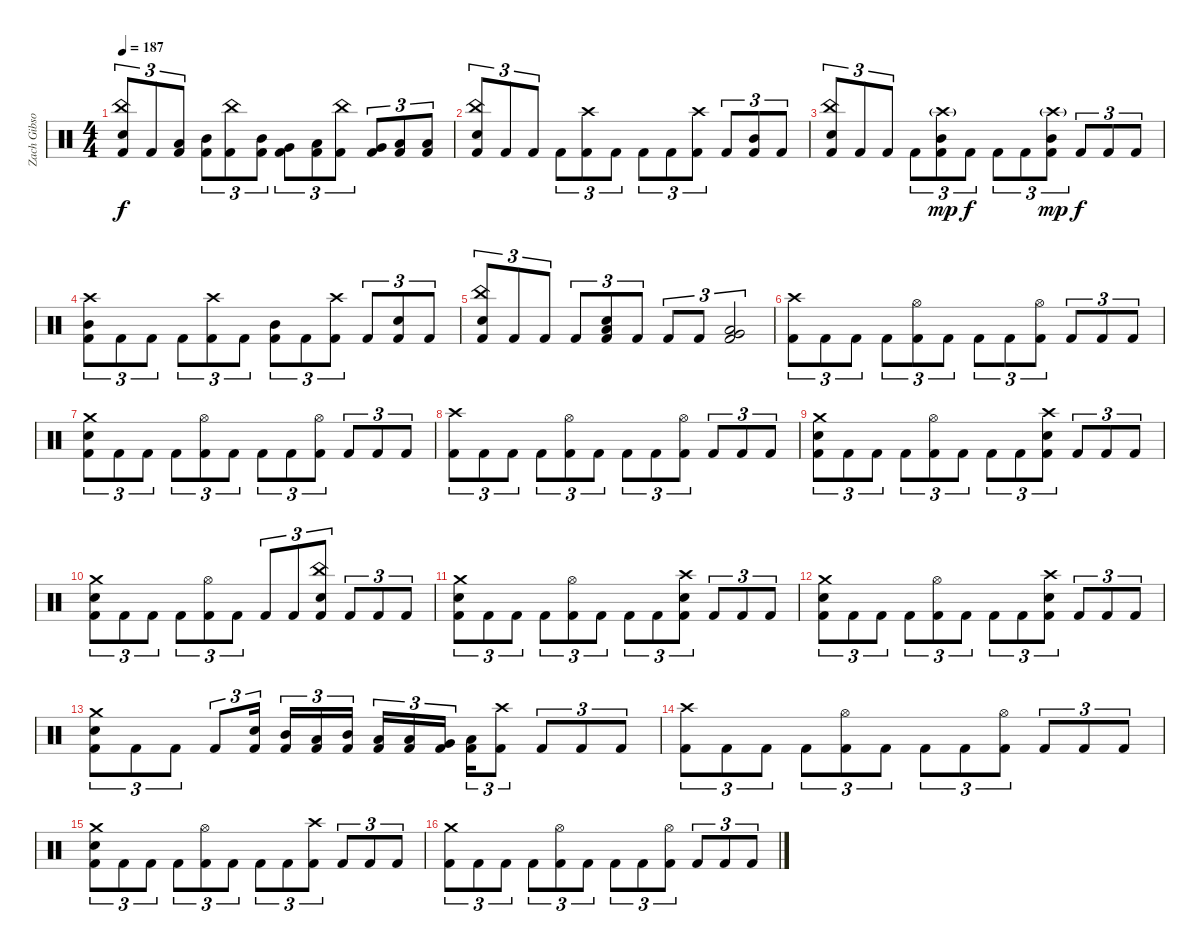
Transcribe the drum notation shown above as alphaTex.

\track ("Zach Gibson (Ex-Drums)" "Zach Gibso") {instrument percussion}
\staff {score}
\articulation defaults
\ts (4 4)
\tempo 187
\clef neutral
\ks c
("Snare (hit) 2" "China (hit)" "Kick (hit) 2").8{tu (3 2) dy f} "Kick (hit) 2".8{tu (3 2)} ("Low Tom (hit)" "Kick (hit) 2").8{tu (3 2)} ("Mid Tom (hit)" "Kick (hit) 2").8{tu (3 2)} ("China (hit)" "Kick (hit) 2").8{tu (3 2)} ("Mid Tom (hit)" "Kick (hit) 2").8{tu (3 2)} ("Very Low Tom (hit)" "Kick (hit) 2").8{tu (3 2)} ("Low Tom (hit)" "Kick (hit) 2").8{tu (3 2)} ("China (hit)" "Kick (hit) 2").8{tu (3 2)} ("Very Low Tom (hit)" "Kick (hit) 2").8{tu (3 2)} ("Low Floor Tom (hit)" "Kick (hit) 2").8{tu (3 2)} ("Low Floor Tom (hit)" "Kick (hit) 2").8{tu (3 2)} |
("Snare (hit) 2" "China (hit)" "Kick (hit) 2").8{tu (3 2)} "Kick (hit) 2".8{tu (3 2)} "Kick (hit) 2".8{tu (3 2)} "Kick (hit) 2".8{tu (3 2)} ("Crash high (hit)" "Kick (hit) 2").8{tu (3 2)} "Kick (hit) 2".8{tu (3 2)} "Kick (hit) 2".8{tu (3 2)} "Kick (hit) 2".8{tu (3 2)} ("Crash high (hit)" "Kick (hit) 2").8{tu (3 2)} "Kick (hit) 2".8{tu (3 2)} ("Mid Tom (hit)" "Kick (hit) 2").8{tu (3 2)} "Kick (hit) 2".8{tu (3 2)} |
("Snare (hit) 2" "China (hit)" "Kick (hit) 2").8{tu (3 2)} "Kick (hit) 2".8{tu (3 2)} "Kick (hit) 2".8{tu (3 2)} "Kick (hit) 2".8{tu (3 2)} ("Mid Tom (hit)" "Crash high (hit)"{g} "Kick (hit) 2").8{tu (3 2) dy mp} "Kick (hit) 2".8{tu (3 2) dy f} "Kick (hit) 2".8{tu (3 2)} "Kick (hit) 2".8{tu (3 2)} ("Mid Tom (hit)" "Crash high (hit)"{g} "Kick (hit) 2").8{tu (3 2) dy mp} "Kick (hit) 2".8{tu (3 2) dy f} "Kick (hit) 2".8{tu (3 2)} "Kick (hit) 2".8{tu (3 2)} |
("Crash high (hit)" "Mid Tom (hit)" "Kick (hit) 2").8{tu (3 2)} "Kick (hit) 2".8{tu (3 2)} "Kick (hit) 2".8{tu (3 2)} "Kick (hit) 2".8{tu (3 2)} ("Crash high (hit)" "Kick (hit) 2").8{tu (3 2)} "Kick (hit) 2".8{tu (3 2)} ("Mid Tom (hit)" "Kick (hit) 2").8{tu (3 2)} "Kick (hit) 2".8{tu (3 2)} ("Crash high (hit)" "Kick (hit) 2").8{tu (3 2)} "Kick (hit) 2".8{tu (3 2)} ("Snare (hit) 2" "Kick (hit) 2").8{tu (3 2)} "Kick (hit) 2".8{tu (3 2)} |
("Snare (hit) 2" "China (hit)" "Kick (hit) 2").8{tu (3 2)} "Kick (hit) 2".8{tu (3 2)} "Kick (hit) 2".8{tu (3 2)} "Kick (hit) 2".8{tu (3 2)} ("Low Floor Tom (hit)" "Snare (hit) 2" "Kick (hit) 2").8{tu (3 2)} "Kick (hit) 2".8{tu (3 2)} "Kick (hit) 2".8{tu (3 2)} "Kick (hit) 2".8{tu (3 2)} ("Low Tom (hit)" "Very Low Tom (hit)" "Kick (hit) 2").2{tu (3 2)} |
("Crash high (hit)" "Kick (hit) 2").8{tu (3 2)} "Kick (hit) 2".8{tu (3 2)} "Kick (hit) 2".8{tu (3 2)} "Kick (hit) 2".8{tu (3 2)} ("Hi-Hat (open)" "Kick (hit) 2").8{tu (3 2)} "Kick (hit) 2".8{tu (3 2)} "Kick (hit) 2".8{tu (3 2)} "Kick (hit) 2".8{tu (3 2)} ("Hi-Hat (open)" "Kick (hit) 2").8{tu (3 2)} "Kick (hit) 2".8{tu (3 2)} "Kick (hit) 2".8{tu (3 2)} "Kick (hit) 2".8{tu (3 2)} |
("Crash medium (hit)" "Snare (hit) 2" "Kick (hit) 2").8{tu (3 2)} "Kick (hit) 2".8{tu (3 2)} "Kick (hit) 2".8{tu (3 2)} "Kick (hit) 2".8{tu (3 2)} ("Hi-Hat (open)" "Kick (hit) 2").8{tu (3 2)} "Kick (hit) 2".8{tu (3 2)} "Kick (hit) 2".8{tu (3 2)} "Kick (hit) 2".8{tu (3 2)} ("Hi-Hat (open)" "Kick (hit) 2").8{tu (3 2)} "Kick (hit) 2".8{tu (3 2)} "Kick (hit) 2".8{tu (3 2)} "Kick (hit) 2".8{tu (3 2)} |
("Crash high (hit)" "Kick (hit) 2").8{tu (3 2)} "Kick (hit) 2".8{tu (3 2)} "Kick (hit) 2".8{tu (3 2)} "Kick (hit) 2".8{tu (3 2)} ("Hi-Hat (open)" "Kick (hit) 2").8{tu (3 2)} "Kick (hit) 2".8{tu (3 2)} "Kick (hit) 2".8{tu (3 2)} "Kick (hit) 2".8{tu (3 2)} ("Hi-Hat (open)" "Kick (hit) 2").8{tu (3 2)} "Kick (hit) 2".8{tu (3 2)} "Kick (hit) 2".8{tu (3 2)} "Kick (hit) 2".8{tu (3 2)} |
("Crash medium (hit)" "Snare (hit) 2" "Kick (hit) 2").8{tu (3 2)} "Kick (hit) 2".8{tu (3 2)} "Kick (hit) 2".8{tu (3 2)} "Kick (hit) 2".8{tu (3 2)} ("Hi-Hat (open)" "Kick (hit) 2").8{tu (3 2)} "Kick (hit) 2".8{tu (3 2)} "Kick (hit) 2".8{tu (3 2)} "Kick (hit) 2".8{tu (3 2)} ("Crash high (hit)" "Snare (hit) 2" "Kick (hit) 2").8{tu (3 2)} "Kick (hit) 2".8{tu (3 2)} "Kick (hit) 2".8{tu (3 2)} "Kick (hit) 2".8{tu (3 2)} |
("Crash medium (hit)" "Snare (hit) 2" "Kick (hit) 2").8{tu (3 2)} "Kick (hit) 2".8{tu (3 2)} "Kick (hit) 2".8{tu (3 2)} "Kick (hit) 2".8{tu (3 2)} ("Hi-Hat (open)" "Kick (hit) 2").8{tu (3 2)} "Kick (hit) 2".8{tu (3 2)} "Kick (hit) 2".8{tu (3 2)} "Kick (hit) 2".8{tu (3 2)} ("China (hit)" "Snare (hit) 2" "Kick (hit) 2").8{tu (3 2)} "Kick (hit) 2".8{tu (3 2)} "Kick (hit) 2".8{tu (3 2)} "Kick (hit) 2".8{tu (3 2)} |
("Crash medium (hit)" "Snare (hit) 2" "Kick (hit) 2").8{tu (3 2)} "Kick (hit) 2".8{tu (3 2)} "Kick (hit) 2".8{tu (3 2)} "Kick (hit) 2".8{tu (3 2)} ("Hi-Hat (open)" "Kick (hit) 2").8{tu (3 2)} "Kick (hit) 2".8{tu (3 2)} "Kick (hit) 2".8{tu (3 2)} "Kick (hit) 2".8{tu (3 2)} ("Crash high (hit)" "Snare (hit) 2" "Kick (hit) 2").8{tu (3 2)} "Kick (hit) 2".8{tu (3 2)} "Kick (hit) 2".8{tu (3 2)} "Kick (hit) 2".8{tu (3 2)} |
("Crash medium (hit)" "Snare (hit) 2" "Kick (hit) 2").8{tu (3 2)} "Kick (hit) 2".8{tu (3 2)} "Kick (hit) 2".8{tu (3 2)} "Kick (hit) 2".8{tu (3 2)} ("Hi-Hat (open)" "Kick (hit) 2").8{tu (3 2)} "Kick (hit) 2".8{tu (3 2)} "Kick (hit) 2".8{tu (3 2)} "Kick (hit) 2".8{tu (3 2)} ("Crash high (hit)" "Snare (hit) 2" "Kick (hit) 2").8{tu (3 2)} "Kick (hit) 2".8{tu (3 2)} "Kick (hit) 2".8{tu (3 2)} "Kick (hit) 2".8{tu (3 2)} |
("Crash medium (hit)" "Snare (hit) 2" "Kick (hit) 2").8{tu (3 2)} "Kick (hit) 2".8{tu (3 2)} "Kick (hit) 2".8{tu (3 2)} "Kick (hit) 2".8{tu (3 2)} ("Snare (hit) 2" "Kick (hit) 2").16{tu (3 2)} ("Mid Tom (hit)" "Kick (hit) 2").16{tu (3 2)} ("Low Tom (hit)" "Kick (hit) 2").16{tu (3 2)} ("Mid Tom (hit)" "Kick (hit) 2").16{tu (3 2)} ("Low Tom (hit)" "Kick (hit) 2").16{tu (3 2)} ("Low Tom (hit)" "Kick (hit) 2").16{tu (3 2)} ("Very Low Tom (hit)" "Kick (hit) 2").16{tu (3 2)} ("Low Tom (hit)" "Kick (hit) 2").16{tu (3 2)} ("Crash high (hit)" "Kick (hit) 2").8{tu (3 2)} "Kick (hit) 2".8{tu (3 2)} "Kick (hit) 2".8{tu (3 2)} "Kick (hit) 2".8{tu (3 2)} |
("Crash high (hit)" "Kick (hit) 2").8{tu (3 2)} "Kick (hit) 2".8{tu (3 2)} "Kick (hit) 2".8{tu (3 2)} "Kick (hit) 2".8{tu (3 2)} ("Hi-Hat (open)" "Kick (hit) 2").8{tu (3 2)} "Kick (hit) 2".8{tu (3 2)} "Kick (hit) 2".8{tu (3 2)} "Kick (hit) 2".8{tu (3 2)} ("Hi-Hat (open)" "Kick (hit) 2").8{tu (3 2)} "Kick (hit) 2".8{tu (3 2)} "Kick (hit) 2".8{tu (3 2)} "Kick (hit) 2".8{tu (3 2)} |
("Crash medium (hit)" "Snare (hit) 2" "Kick (hit) 2").8{tu (3 2)} "Kick (hit) 2".8{tu (3 2)} "Kick (hit) 2".8{tu (3 2)} "Kick (hit) 2".8{tu (3 2)} ("Hi-Hat (open)" "Kick (hit) 2").8{tu (3 2)} "Kick (hit) 2".8{tu (3 2)} "Kick (hit) 2".8{tu (3 2)} "Kick (hit) 2".8{tu (3 2)} ("Crash high (hit)" "Kick (hit) 2").8{tu (3 2)} "Kick (hit) 2".8{tu (3 2)} "Kick (hit) 2".8{tu (3 2)} "Kick (hit) 2".8{tu (3 2)} |
("Crash medium (hit)" "Kick (hit) 2").8{tu (3 2)} "Kick (hit) 2".8{tu (3 2)} "Kick (hit) 2".8{tu (3 2)} "Kick (hit) 2".8{tu (3 2)} ("Hi-Hat (open)" "Kick (hit) 2").8{tu (3 2)} "Kick (hit) 2".8{tu (3 2)} "Kick (hit) 2".8{tu (3 2)} "Kick (hit) 2".8{tu (3 2)} ("Hi-Hat (open)" "Kick (hit) 2").8{tu (3 2)} "Kick (hit) 2".8{tu (3 2)} "Kick (hit) 2".8{tu (3 2)} "Kick (hit) 2".8{tu (3 2)}
